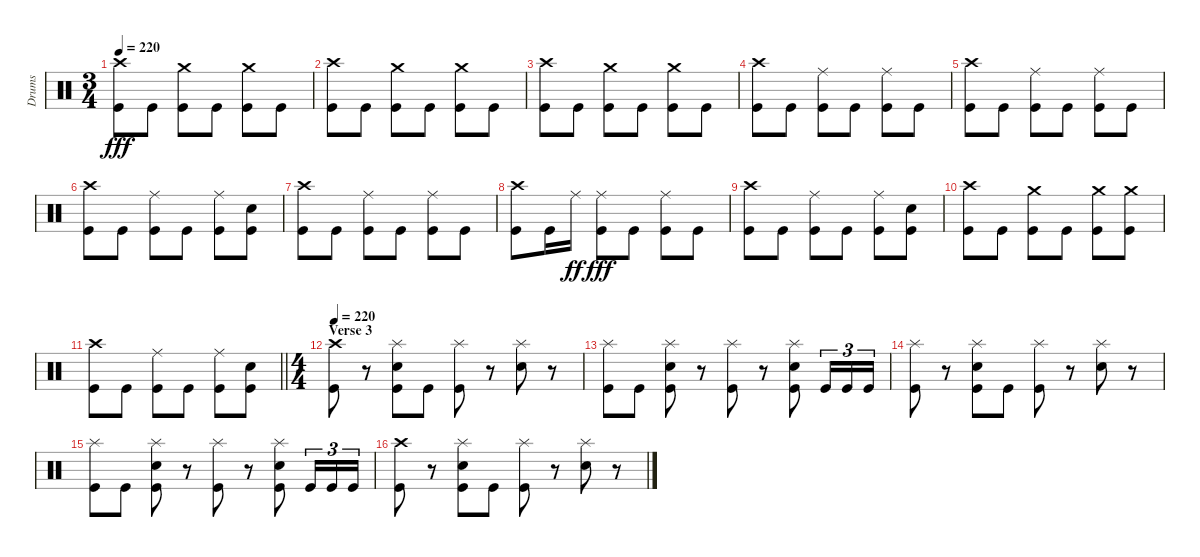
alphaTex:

\track ("Drums" "Drums") {instrument percussion}
\staff {score}
\articulation defaults
\ts (3 4)
\tempo 220
\clef neutral
\ks c
("Crash high (hit)" "Kick (hit)").8{dy fff} "Kick (hit)".8 ("Crash medium (hit)" "Kick (hit)").8 "Kick (hit)".8 ("Crash medium (hit)" "Kick (hit)").8 "Kick (hit)".8 |
("Crash high (hit)" "Kick (hit)").8 "Kick (hit)".8 ("Crash medium (hit)" "Kick (hit)").8 "Kick (hit)".8 ("Crash medium (hit)" "Kick (hit)").8 "Kick (hit)".8 |
("Crash high (hit)" "Kick (hit)").8 "Kick (hit)".8 ("Crash medium (hit)" "Kick (hit)").8 "Kick (hit)".8 ("Crash medium (hit)" "Kick (hit)").8 "Kick (hit)".8 |
("Crash high (hit)" "Kick (hit)").8 "Kick (hit)".8 ("Ride (middle)" "Kick (hit)").8 "Kick (hit)".8 ("Ride (middle)" "Kick (hit)").8 "Kick (hit)".8 |
("Crash high (hit)" "Kick (hit)").8 "Kick (hit)".8 ("Ride (middle)" "Kick (hit)").8 "Kick (hit)".8 ("Ride (middle)" "Kick (hit)").8 "Kick (hit)".8 |
("Crash high (hit)" "Kick (hit)").8 "Kick (hit)".8 ("Ride (middle)" "Kick (hit)").8 "Kick (hit)".8 ("Ride (middle)" "Kick (hit)").8 ("Electric Snare (hit)" "Kick (hit)").8 |
("Crash high (hit)" "Kick (hit)").8 "Kick (hit)".8 ("Ride (middle)" "Kick (hit)").8 "Kick (hit)".8 ("Ride (middle)" "Kick (hit)").8 "Kick (hit)".8 |
("Crash high (hit)" "Kick (hit)").8 "Kick (hit)".16 "Ride (middle)".16{dy ff} ("Ride (middle)" "Kick (hit)").8{dy fff} "Kick (hit)".8 ("Ride (middle)" "Kick (hit)").8 "Kick (hit)".8 |
("Crash high (hit)" "Kick (hit)").8 "Kick (hit)".8 ("Ride (middle)" "Kick (hit)").8 "Kick (hit)".8 ("Ride (middle)" "Kick (hit)").8 ("Electric Snare (hit)" "Kick (hit)").8 |
("Crash high (hit)" "Kick (hit)").8 "Kick (hit)".8 ("Crash medium (hit)" "Kick (hit)").8 "Kick (hit)".8 ("Crash medium (hit)" "Kick (hit)").8 ("Crash medium (hit)" "Kick (hit)").8 |
\barLineRight lightlight
("Crash high (hit)" "Kick (hit)").8 "Kick (hit)".8 ("Ride (middle)" "Kick (hit)").8 "Kick (hit)".8 ("Ride (middle)" "Kick (hit)").8 ("Electric Snare (hit)" "Kick (hit)").8 |
\ts (4 4)
\section ("" "Verse 3")
\tempo 220
("Crash high (hit)" "Kick (hit)").8 r.8 ("Splash (hit)" "Electric Snare (hit)" "Kick (hit)").8 "Kick (hit)".8 ("Splash (hit)" "Kick (hit)").8 r.8 ("Splash (hit)" "Electric Snare (hit)").8 r.8 |
("Splash (hit)" "Kick (hit)").8 "Kick (hit)".8 ("Splash (hit)" "Electric Snare (hit)" "Kick (hit)").8 r.8 ("Splash (hit)" "Kick (hit)").8 r.8 ("Splash (hit)" "Electric Snare (hit)" "Kick (hit)").8 "Kick (hit)".16{tu (3 2)} "Kick (hit)".16{tu (3 2)} "Kick (hit)".16{tu (3 2)} |
("Splash (hit)" "Kick (hit)").8 r.8 ("Splash (hit)" "Electric Snare (hit)" "Kick (hit)").8 "Kick (hit)".8 ("Splash (hit)" "Kick (hit)").8 r.8 ("Splash (hit)" "Electric Snare (hit)").8 r.8 |
("Splash (hit)" "Kick (hit)").8 "Kick (hit)".8 ("Splash (hit)" "Electric Snare (hit)" "Kick (hit)").8 r.8 ("Splash (hit)" "Kick (hit)").8 r.8 ("Splash (hit)" "Electric Snare (hit)" "Kick (hit)").8 "Kick (hit)".16{tu (3 2)} "Kick (hit)".16{tu (3 2)} "Kick (hit)".16{tu (3 2)} |
("Crash high (hit)" "Kick (hit)").8 r.8 ("Splash (hit)" "Electric Snare (hit)" "Kick (hit)").8 "Kick (hit)".8 ("Splash (hit)" "Kick (hit)").8 r.8 ("Splash (hit)" "Electric Snare (hit)").8 r.8
